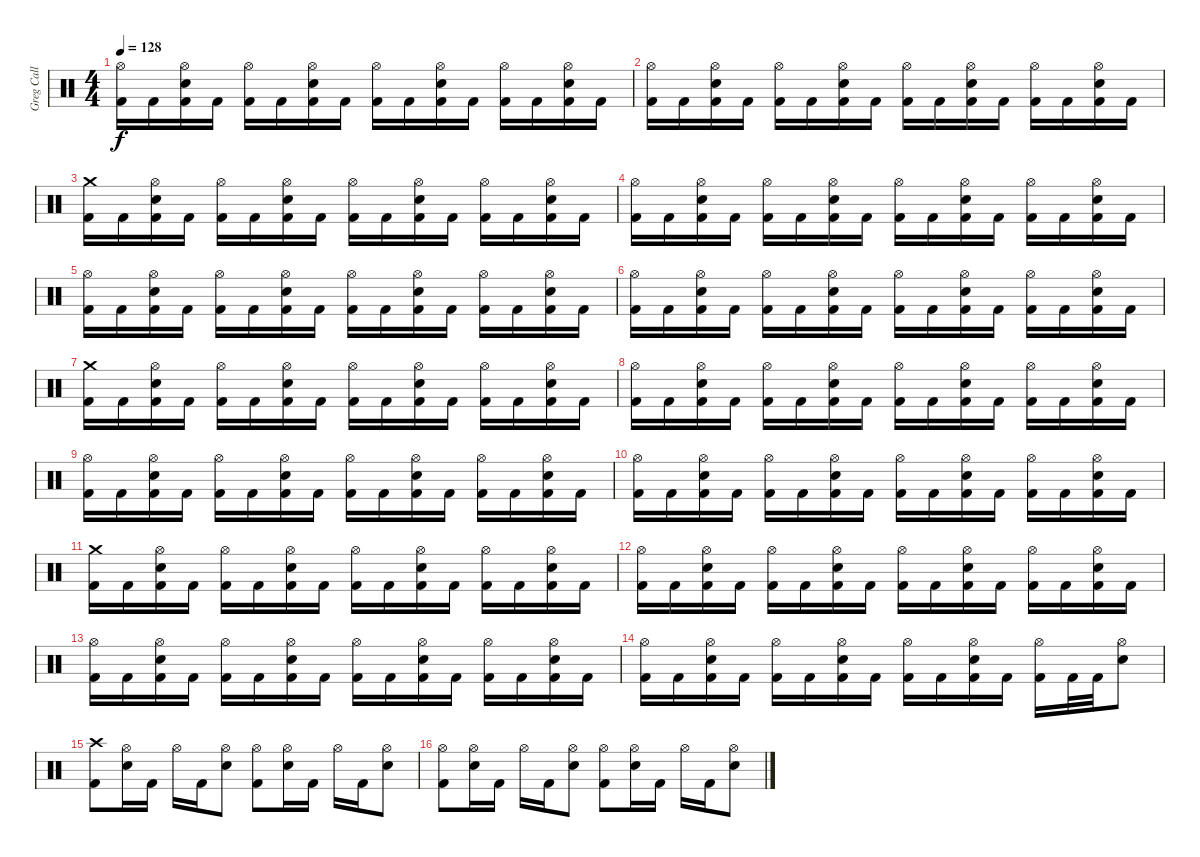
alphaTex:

\track ("Greg Call (Drums)" "Greg Call ") {instrument percussion}
\staff {score}
\articulation defaults
\ts (4 4)
\tempo 128
\clef neutral
\ks c
("Hi-Hat (open)" "Kick (hit) 2").16{dy f} "Kick (hit) 2".16 ("Hi-Hat (open)" "Snare (hit) 2" "Kick (hit) 2").16 "Kick (hit) 2".16 ("Hi-Hat (open)" "Kick (hit) 2").16 "Kick (hit) 2".16 ("Snare (hit) 2" "Hi-Hat (open)" "Kick (hit) 2").16 "Kick (hit) 2".16 ("Hi-Hat (open)" "Kick (hit) 2").16 "Kick (hit) 2".16 ("Snare (hit) 2" "Hi-Hat (open)" "Kick (hit) 2").16 "Kick (hit) 2".16 ("Hi-Hat (open)" "Kick (hit) 2").16 "Kick (hit) 2".16 ("Snare (hit) 2" "Hi-Hat (open)" "Kick (hit) 2").16 "Kick (hit) 2".16 |
("Hi-Hat (open)" "Kick (hit) 2").16 "Kick (hit) 2".16 ("Hi-Hat (open)" "Snare (hit) 2" "Kick (hit) 2").16 "Kick (hit) 2".16 ("Hi-Hat (open)" "Kick (hit) 2").16 "Kick (hit) 2".16 ("Snare (hit) 2" "Hi-Hat (open)" "Kick (hit) 2").16 "Kick (hit) 2".16 ("Hi-Hat (open)" "Kick (hit) 2").16 "Kick (hit) 2".16 ("Snare (hit) 2" "Hi-Hat (open)" "Kick (hit) 2").16 "Kick (hit) 2".16 ("Hi-Hat (open)" "Kick (hit) 2").16 "Kick (hit) 2".16 ("Snare (hit) 2" "Hi-Hat (open)" "Kick (hit) 2").16 "Kick (hit) 2".16 |
("Crash medium (hit)" "Kick (hit) 2").16 "Kick (hit) 2".16 ("Hi-Hat (open)" "Snare (hit) 2" "Kick (hit) 2").16 "Kick (hit) 2".16 ("Hi-Hat (open)" "Kick (hit) 2").16 "Kick (hit) 2".16 ("Snare (hit) 2" "Hi-Hat (open)" "Kick (hit) 2").16 "Kick (hit) 2".16 ("Hi-Hat (open)" "Kick (hit) 2").16 "Kick (hit) 2".16 ("Snare (hit) 2" "Hi-Hat (open)" "Kick (hit) 2").16 "Kick (hit) 2".16 ("Hi-Hat (open)" "Kick (hit) 2").16 "Kick (hit) 2".16 ("Snare (hit) 2" "Hi-Hat (open)" "Kick (hit) 2").16 "Kick (hit) 2".16 |
("Hi-Hat (open)" "Kick (hit) 2").16 "Kick (hit) 2".16 ("Hi-Hat (open)" "Snare (hit) 2" "Kick (hit) 2").16 "Kick (hit) 2".16 ("Hi-Hat (open)" "Kick (hit) 2").16 "Kick (hit) 2".16 ("Snare (hit) 2" "Hi-Hat (open)" "Kick (hit) 2").16 "Kick (hit) 2".16 ("Hi-Hat (open)" "Kick (hit) 2").16 "Kick (hit) 2".16 ("Snare (hit) 2" "Hi-Hat (open)" "Kick (hit) 2").16 "Kick (hit) 2".16 ("Hi-Hat (open)" "Kick (hit) 2").16 "Kick (hit) 2".16 ("Snare (hit) 2" "Hi-Hat (open)" "Kick (hit) 2").16 "Kick (hit) 2".16 |
("Hi-Hat (open)" "Kick (hit) 2").16 "Kick (hit) 2".16 ("Hi-Hat (open)" "Snare (hit) 2" "Kick (hit) 2").16 "Kick (hit) 2".16 ("Hi-Hat (open)" "Kick (hit) 2").16 "Kick (hit) 2".16 ("Snare (hit) 2" "Hi-Hat (open)" "Kick (hit) 2").16 "Kick (hit) 2".16 ("Hi-Hat (open)" "Kick (hit) 2").16 "Kick (hit) 2".16 ("Snare (hit) 2" "Hi-Hat (open)" "Kick (hit) 2").16 "Kick (hit) 2".16 ("Hi-Hat (open)" "Kick (hit) 2").16 "Kick (hit) 2".16 ("Snare (hit) 2" "Hi-Hat (open)" "Kick (hit) 2").16 "Kick (hit) 2".16 |
("Hi-Hat (open)" "Kick (hit) 2").16 "Kick (hit) 2".16 ("Hi-Hat (open)" "Snare (hit) 2" "Kick (hit) 2").16 "Kick (hit) 2".16 ("Hi-Hat (open)" "Kick (hit) 2").16 "Kick (hit) 2".16 ("Snare (hit) 2" "Hi-Hat (open)" "Kick (hit) 2").16 "Kick (hit) 2".16 ("Hi-Hat (open)" "Kick (hit) 2").16 "Kick (hit) 2".16 ("Snare (hit) 2" "Hi-Hat (open)" "Kick (hit) 2").16 "Kick (hit) 2".16 ("Hi-Hat (open)" "Kick (hit) 2").16 "Kick (hit) 2".16 ("Snare (hit) 2" "Hi-Hat (open)" "Kick (hit) 2").16 "Kick (hit) 2".16 |
("Crash medium (hit)" "Kick (hit) 2").16 "Kick (hit) 2".16 ("Hi-Hat (open)" "Snare (hit) 2" "Kick (hit) 2").16 "Kick (hit) 2".16 ("Hi-Hat (open)" "Kick (hit) 2").16 "Kick (hit) 2".16 ("Snare (hit) 2" "Hi-Hat (open)" "Kick (hit) 2").16 "Kick (hit) 2".16 ("Hi-Hat (open)" "Kick (hit) 2").16 "Kick (hit) 2".16 ("Snare (hit) 2" "Hi-Hat (open)" "Kick (hit) 2").16 "Kick (hit) 2".16 ("Hi-Hat (open)" "Kick (hit) 2").16 "Kick (hit) 2".16 ("Snare (hit) 2" "Hi-Hat (open)" "Kick (hit) 2").16 "Kick (hit) 2".16 |
("Hi-Hat (open)" "Kick (hit) 2").16 "Kick (hit) 2".16 ("Hi-Hat (open)" "Snare (hit) 2" "Kick (hit) 2").16 "Kick (hit) 2".16 ("Hi-Hat (open)" "Kick (hit) 2").16 "Kick (hit) 2".16 ("Snare (hit) 2" "Hi-Hat (open)" "Kick (hit) 2").16 "Kick (hit) 2".16 ("Hi-Hat (open)" "Kick (hit) 2").16 "Kick (hit) 2".16 ("Snare (hit) 2" "Hi-Hat (open)" "Kick (hit) 2").16 "Kick (hit) 2".16 ("Hi-Hat (open)" "Kick (hit) 2").16 "Kick (hit) 2".16 ("Snare (hit) 2" "Hi-Hat (open)" "Kick (hit) 2").16 "Kick (hit) 2".16 |
("Hi-Hat (open)" "Kick (hit) 2").16 "Kick (hit) 2".16 ("Hi-Hat (open)" "Snare (hit) 2" "Kick (hit) 2").16 "Kick (hit) 2".16 ("Hi-Hat (open)" "Kick (hit) 2").16 "Kick (hit) 2".16 ("Snare (hit) 2" "Hi-Hat (open)" "Kick (hit) 2").16 "Kick (hit) 2".16 ("Hi-Hat (open)" "Kick (hit) 2").16 "Kick (hit) 2".16 ("Snare (hit) 2" "Hi-Hat (open)" "Kick (hit) 2").16 "Kick (hit) 2".16 ("Hi-Hat (open)" "Kick (hit) 2").16 "Kick (hit) 2".16 ("Snare (hit) 2" "Hi-Hat (open)" "Kick (hit) 2").16 "Kick (hit) 2".16 |
("Hi-Hat (open)" "Kick (hit) 2").16 "Kick (hit) 2".16 ("Hi-Hat (open)" "Snare (hit) 2" "Kick (hit) 2").16 "Kick (hit) 2".16 ("Hi-Hat (open)" "Kick (hit) 2").16 "Kick (hit) 2".16 ("Snare (hit) 2" "Hi-Hat (open)" "Kick (hit) 2").16 "Kick (hit) 2".16 ("Hi-Hat (open)" "Kick (hit) 2").16 "Kick (hit) 2".16 ("Snare (hit) 2" "Hi-Hat (open)" "Kick (hit) 2").16 "Kick (hit) 2".16 ("Hi-Hat (open)" "Kick (hit) 2").16 "Kick (hit) 2".16 ("Snare (hit) 2" "Hi-Hat (open)" "Kick (hit) 2").16 "Kick (hit) 2".16 |
("Crash medium (hit)" "Kick (hit) 2").16 "Kick (hit) 2".16 ("Hi-Hat (open)" "Snare (hit) 2" "Kick (hit) 2").16 "Kick (hit) 2".16 ("Hi-Hat (open)" "Kick (hit) 2").16 "Kick (hit) 2".16 ("Snare (hit) 2" "Hi-Hat (open)" "Kick (hit) 2").16 "Kick (hit) 2".16 ("Hi-Hat (open)" "Kick (hit) 2").16 "Kick (hit) 2".16 ("Snare (hit) 2" "Hi-Hat (open)" "Kick (hit) 2").16 "Kick (hit) 2".16 ("Hi-Hat (open)" "Kick (hit) 2").16 "Kick (hit) 2".16 ("Snare (hit) 2" "Hi-Hat (open)" "Kick (hit) 2").16 "Kick (hit) 2".16 |
("Hi-Hat (open)" "Kick (hit) 2").16 "Kick (hit) 2".16 ("Hi-Hat (open)" "Snare (hit) 2" "Kick (hit) 2").16 "Kick (hit) 2".16 ("Hi-Hat (open)" "Kick (hit) 2").16 "Kick (hit) 2".16 ("Snare (hit) 2" "Hi-Hat (open)" "Kick (hit) 2").16 "Kick (hit) 2".16 ("Hi-Hat (open)" "Kick (hit) 2").16 "Kick (hit) 2".16 ("Snare (hit) 2" "Hi-Hat (open)" "Kick (hit) 2").16 "Kick (hit) 2".16 ("Hi-Hat (open)" "Kick (hit) 2").16 "Kick (hit) 2".16 ("Snare (hit) 2" "Hi-Hat (open)" "Kick (hit) 2").16 "Kick (hit) 2".16 |
("Hi-Hat (open)" "Kick (hit) 2").16 "Kick (hit) 2".16 ("Hi-Hat (open)" "Snare (hit) 2" "Kick (hit) 2").16 "Kick (hit) 2".16 ("Hi-Hat (open)" "Kick (hit) 2").16 "Kick (hit) 2".16 ("Snare (hit) 2" "Hi-Hat (open)" "Kick (hit) 2").16 "Kick (hit) 2".16 ("Hi-Hat (open)" "Kick (hit) 2").16 "Kick (hit) 2".16 ("Snare (hit) 2" "Hi-Hat (open)" "Kick (hit) 2").16 "Kick (hit) 2".16 ("Hi-Hat (open)" "Kick (hit) 2").16 "Kick (hit) 2".16 ("Snare (hit) 2" "Hi-Hat (open)" "Kick (hit) 2").16 "Kick (hit) 2".16 |
("Hi-Hat (open)" "Kick (hit) 2").16 "Kick (hit) 2".16 ("Hi-Hat (open)" "Snare (hit) 2" "Kick (hit) 2").16 "Kick (hit) 2".16 ("Hi-Hat (open)" "Kick (hit) 2").16 "Kick (hit) 2".16 ("Snare (hit) 2" "Hi-Hat (open)" "Kick (hit) 2").16 "Kick (hit) 2".16 ("Hi-Hat (open)" "Kick (hit) 2").16 "Kick (hit) 2".16 ("Snare (hit) 2" "Hi-Hat (open)" "Kick (hit) 2").16 "Kick (hit) 2".16 ("Hi-Hat (open)" "Kick (hit) 2").16 "Kick (hit) 2".32 "Kick (hit) 2".32 ("Hi-Hat (open)" "Snare (hit) 2").8 |
("Crash high (hit)" "Kick (hit) 2").8 ("Hi-Hat (open)" "Snare (hit) 2").16 "Kick (hit) 2".16 "Hi-Hat (open)".16 "Kick (hit) 2".16 ("Hi-Hat (open)" "Snare (hit) 2").8 ("Hi-Hat (open)" "Kick (hit) 2").8 ("Hi-Hat (open)" "Snare (hit) 2").16 "Kick (hit) 2".16 "Hi-Hat (open)".16 "Kick (hit) 2".16 ("Hi-Hat (open)" "Snare (hit) 2").8 |
("Hi-Hat (open)" "Kick (hit) 2").8 ("Hi-Hat (open)" "Snare (hit) 2").16 "Kick (hit) 2".16 "Hi-Hat (open)".16 "Kick (hit) 2".16 ("Hi-Hat (open)" "Snare (hit) 2").8 ("Hi-Hat (open)" "Kick (hit) 2").8 ("Hi-Hat (open)" "Snare (hit) 2").16 "Kick (hit) 2".16 "Hi-Hat (open)".16 "Kick (hit) 2".16 ("Hi-Hat (open)" "Snare (hit) 2").8
